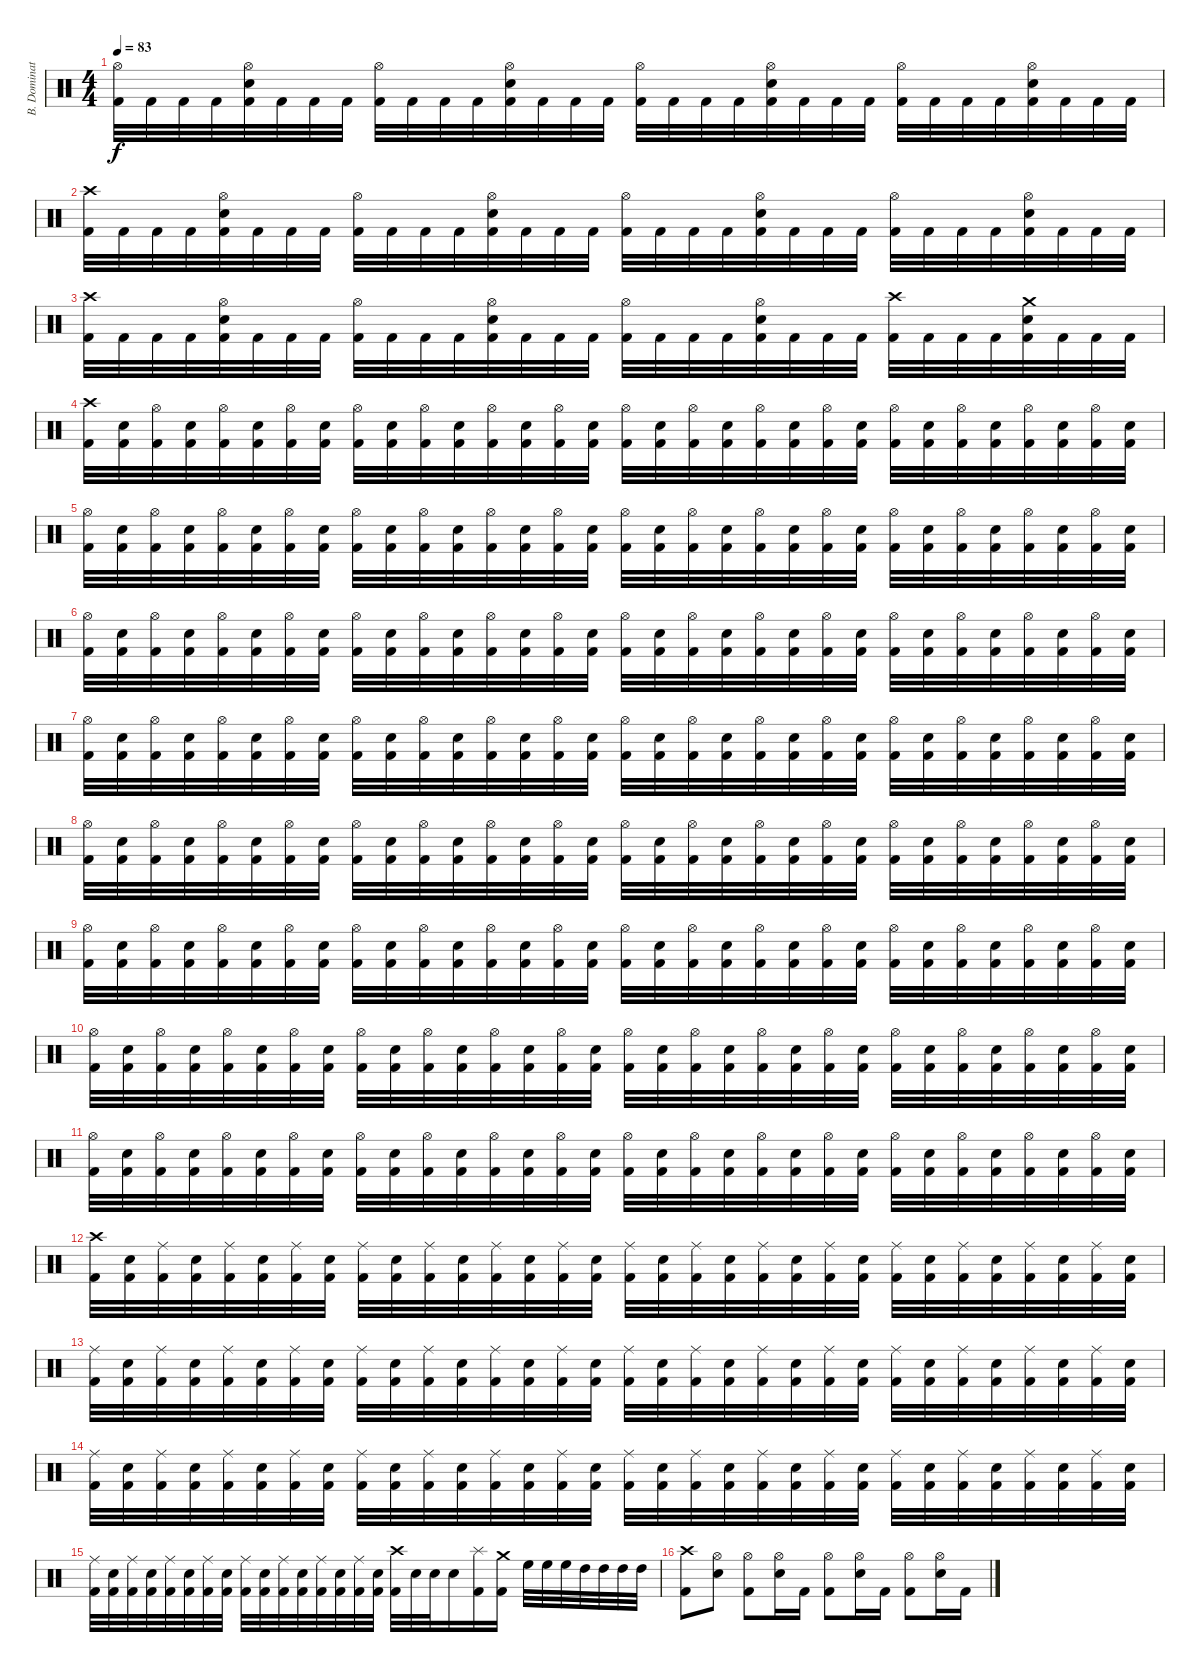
\track ("B. Dominator" "B. Dominat") {instrument percussion}
\staff {score}
\articulation defaults
\ts (4 4)
\tempo 83
\clef neutral
\ks c
("Hi-Hat (open)" "Kick (hit) 2").32{dy f} "Kick (hit) 2".32 "Kick (hit) 2".32 "Kick (hit) 2".32 ("Hi-Hat (open)" "Electric Snare (hit)" "Kick (hit) 2").32 "Kick (hit) 2".32 "Kick (hit) 2".32 "Kick (hit) 2".32 ("Hi-Hat (open)" "Kick (hit) 2").32 "Kick (hit) 2".32 "Kick (hit) 2".32 "Kick (hit) 2".32 ("Hi-Hat (open)" "Electric Snare (hit)" "Kick (hit) 2").32 "Kick (hit) 2".32 "Kick (hit) 2".32 "Kick (hit) 2".32 ("Hi-Hat (open)" "Kick (hit) 2").32 "Kick (hit) 2".32 "Kick (hit) 2".32 "Kick (hit) 2".32 ("Hi-Hat (open)" "Electric Snare (hit)" "Kick (hit) 2").32 "Kick (hit) 2".32 "Kick (hit) 2".32 "Kick (hit) 2".32 ("Hi-Hat (open)" "Kick (hit) 2").32 "Kick (hit) 2".32 "Kick (hit) 2".32 "Kick (hit) 2".32 ("Hi-Hat (open)" "Electric Snare (hit)" "Kick (hit) 2").32 "Kick (hit) 2".32 "Kick (hit) 2".32 "Kick (hit) 2".32 |
("Crash high (hit)" "Kick (hit) 2").32 "Kick (hit) 2".32 "Kick (hit) 2".32 "Kick (hit) 2".32 ("Hi-Hat (open)" "Electric Snare (hit)" "Kick (hit) 2").32 "Kick (hit) 2".32 "Kick (hit) 2".32 "Kick (hit) 2".32 ("Hi-Hat (open)" "Kick (hit) 2").32 "Kick (hit) 2".32 "Kick (hit) 2".32 "Kick (hit) 2".32 ("Hi-Hat (open)" "Electric Snare (hit)" "Kick (hit) 2").32 "Kick (hit) 2".32 "Kick (hit) 2".32 "Kick (hit) 2".32 ("Hi-Hat (open)" "Kick (hit) 2").32 "Kick (hit) 2".32 "Kick (hit) 2".32 "Kick (hit) 2".32 ("Hi-Hat (open)" "Electric Snare (hit)" "Kick (hit) 2").32 "Kick (hit) 2".32 "Kick (hit) 2".32 "Kick (hit) 2".32 ("Hi-Hat (open)" "Kick (hit) 2").32 "Kick (hit) 2".32 "Kick (hit) 2".32 "Kick (hit) 2".32 ("Hi-Hat (open)" "Electric Snare (hit)" "Kick (hit) 2").32 "Kick (hit) 2".32 "Kick (hit) 2".32 "Kick (hit) 2".32 |
("Crash high (hit)" "Kick (hit) 2").32 "Kick (hit) 2".32 "Kick (hit) 2".32 "Kick (hit) 2".32 ("Hi-Hat (open)" "Electric Snare (hit)" "Kick (hit) 2").32 "Kick (hit) 2".32 "Kick (hit) 2".32 "Kick (hit) 2".32 ("Hi-Hat (open)" "Kick (hit) 2").32 "Kick (hit) 2".32 "Kick (hit) 2".32 "Kick (hit) 2".32 ("Hi-Hat (open)" "Electric Snare (hit)" "Kick (hit) 2").32 "Kick (hit) 2".32 "Kick (hit) 2".32 "Kick (hit) 2".32 ("Hi-Hat (open)" "Kick (hit) 2").32 "Kick (hit) 2".32 "Kick (hit) 2".32 "Kick (hit) 2".32 ("Hi-Hat (open)" "Electric Snare (hit)" "Kick (hit) 2").32 "Kick (hit) 2".32 "Kick (hit) 2".32 "Kick (hit) 2".32 ("Crash high (hit)" "Kick (hit) 2").32 "Kick (hit) 2".32 "Kick (hit) 2".32 "Kick (hit) 2".32 ("Crash medium (hit)" "Electric Snare (hit)" "Kick (hit) 2").32 "Kick (hit) 2".32 "Kick (hit) 2".32 "Kick (hit) 2".32 |
("Crash high (hit)" "Kick (hit) 2").32 ("Electric Snare (hit)" "Kick (hit) 2").32 ("Hi-Hat (open)" "Kick (hit) 2").32 ("Electric Snare (hit)" "Kick (hit) 2").32 ("Hi-Hat (open)" "Kick (hit) 2").32 ("Electric Snare (hit)" "Kick (hit) 2").32 ("Hi-Hat (open)" "Kick (hit) 2").32 ("Electric Snare (hit)" "Kick (hit) 2").32 ("Hi-Hat (open)" "Kick (hit) 2").32 ("Electric Snare (hit)" "Kick (hit) 2").32 ("Hi-Hat (open)" "Kick (hit) 2").32 ("Electric Snare (hit)" "Kick (hit) 2").32 ("Hi-Hat (open)" "Kick (hit) 2").32 ("Electric Snare (hit)" "Kick (hit) 2").32 ("Hi-Hat (open)" "Kick (hit) 2").32 ("Electric Snare (hit)" "Kick (hit) 2").32 ("Hi-Hat (open)" "Kick (hit) 2").32 ("Electric Snare (hit)" "Kick (hit) 2").32 ("Hi-Hat (open)" "Kick (hit) 2").32 ("Electric Snare (hit)" "Kick (hit) 2").32 ("Hi-Hat (open)" "Kick (hit) 2").32 ("Electric Snare (hit)" "Kick (hit) 2").32 ("Hi-Hat (open)" "Kick (hit) 2").32 ("Electric Snare (hit)" "Kick (hit) 2").32 ("Hi-Hat (open)" "Kick (hit) 2").32 ("Electric Snare (hit)" "Kick (hit) 2").32 ("Hi-Hat (open)" "Kick (hit) 2").32 ("Electric Snare (hit)" "Kick (hit) 2").32 ("Hi-Hat (open)" "Kick (hit) 2").32 ("Electric Snare (hit)" "Kick (hit) 2").32 ("Hi-Hat (open)" "Kick (hit) 2").32 ("Electric Snare (hit)" "Kick (hit) 2").32 |
("Hi-Hat (open)" "Kick (hit) 2").32 ("Electric Snare (hit)" "Kick (hit) 2").32 ("Hi-Hat (open)" "Kick (hit) 2").32 ("Electric Snare (hit)" "Kick (hit) 2").32 ("Hi-Hat (open)" "Kick (hit) 2").32 ("Electric Snare (hit)" "Kick (hit) 2").32 ("Hi-Hat (open)" "Kick (hit) 2").32 ("Electric Snare (hit)" "Kick (hit) 2").32 ("Hi-Hat (open)" "Kick (hit) 2").32 ("Electric Snare (hit)" "Kick (hit) 2").32 ("Hi-Hat (open)" "Kick (hit) 2").32 ("Electric Snare (hit)" "Kick (hit) 2").32 ("Hi-Hat (open)" "Kick (hit) 2").32 ("Electric Snare (hit)" "Kick (hit) 2").32 ("Hi-Hat (open)" "Kick (hit) 2").32 ("Electric Snare (hit)" "Kick (hit) 2").32 ("Hi-Hat (open)" "Kick (hit) 2").32 ("Electric Snare (hit)" "Kick (hit) 2").32 ("Hi-Hat (open)" "Kick (hit) 2").32 ("Electric Snare (hit)" "Kick (hit) 2").32 ("Hi-Hat (open)" "Kick (hit) 2").32 ("Electric Snare (hit)" "Kick (hit) 2").32 ("Hi-Hat (open)" "Kick (hit) 2").32 ("Electric Snare (hit)" "Kick (hit) 2").32 ("Hi-Hat (open)" "Kick (hit) 2").32 ("Electric Snare (hit)" "Kick (hit) 2").32 ("Hi-Hat (open)" "Kick (hit) 2").32 ("Electric Snare (hit)" "Kick (hit) 2").32 ("Hi-Hat (open)" "Kick (hit) 2").32 ("Electric Snare (hit)" "Kick (hit) 2").32 ("Hi-Hat (open)" "Kick (hit) 2").32 ("Electric Snare (hit)" "Kick (hit) 2").32 |
("Hi-Hat (open)" "Kick (hit) 2").32 ("Electric Snare (hit)" "Kick (hit) 2").32 ("Hi-Hat (open)" "Kick (hit) 2").32 ("Electric Snare (hit)" "Kick (hit) 2").32 ("Hi-Hat (open)" "Kick (hit) 2").32 ("Electric Snare (hit)" "Kick (hit) 2").32 ("Hi-Hat (open)" "Kick (hit) 2").32 ("Electric Snare (hit)" "Kick (hit) 2").32 ("Hi-Hat (open)" "Kick (hit) 2").32 ("Electric Snare (hit)" "Kick (hit) 2").32 ("Hi-Hat (open)" "Kick (hit) 2").32 ("Electric Snare (hit)" "Kick (hit) 2").32 ("Hi-Hat (open)" "Kick (hit) 2").32 ("Electric Snare (hit)" "Kick (hit) 2").32 ("Hi-Hat (open)" "Kick (hit) 2").32 ("Electric Snare (hit)" "Kick (hit) 2").32 ("Hi-Hat (open)" "Kick (hit) 2").32 ("Electric Snare (hit)" "Kick (hit) 2").32 ("Hi-Hat (open)" "Kick (hit) 2").32 ("Electric Snare (hit)" "Kick (hit) 2").32 ("Hi-Hat (open)" "Kick (hit) 2").32 ("Electric Snare (hit)" "Kick (hit) 2").32 ("Hi-Hat (open)" "Kick (hit) 2").32 ("Electric Snare (hit)" "Kick (hit) 2").32 ("Hi-Hat (open)" "Kick (hit) 2").32 ("Electric Snare (hit)" "Kick (hit) 2").32 ("Hi-Hat (open)" "Kick (hit) 2").32 ("Electric Snare (hit)" "Kick (hit) 2").32 ("Hi-Hat (open)" "Kick (hit) 2").32 ("Electric Snare (hit)" "Kick (hit) 2").32 ("Hi-Hat (open)" "Kick (hit) 2").32 ("Electric Snare (hit)" "Kick (hit) 2").32 |
("Hi-Hat (open)" "Kick (hit) 2").32 ("Electric Snare (hit)" "Kick (hit) 2").32 ("Hi-Hat (open)" "Kick (hit) 2").32 ("Electric Snare (hit)" "Kick (hit) 2").32 ("Hi-Hat (open)" "Kick (hit) 2").32 ("Electric Snare (hit)" "Kick (hit) 2").32 ("Hi-Hat (open)" "Kick (hit) 2").32 ("Electric Snare (hit)" "Kick (hit) 2").32 ("Hi-Hat (open)" "Kick (hit) 2").32 ("Electric Snare (hit)" "Kick (hit) 2").32 ("Hi-Hat (open)" "Kick (hit) 2").32 ("Electric Snare (hit)" "Kick (hit) 2").32 ("Hi-Hat (open)" "Kick (hit) 2").32 ("Electric Snare (hit)" "Kick (hit) 2").32 ("Hi-Hat (open)" "Kick (hit) 2").32 ("Electric Snare (hit)" "Kick (hit) 2").32 ("Hi-Hat (open)" "Kick (hit) 2").32 ("Electric Snare (hit)" "Kick (hit) 2").32 ("Hi-Hat (open)" "Kick (hit) 2").32 ("Electric Snare (hit)" "Kick (hit) 2").32 ("Hi-Hat (open)" "Kick (hit) 2").32 ("Electric Snare (hit)" "Kick (hit) 2").32 ("Hi-Hat (open)" "Kick (hit) 2").32 ("Electric Snare (hit)" "Kick (hit) 2").32 ("Hi-Hat (open)" "Kick (hit) 2").32 ("Electric Snare (hit)" "Kick (hit) 2").32 ("Hi-Hat (open)" "Kick (hit) 2").32 ("Electric Snare (hit)" "Kick (hit) 2").32 ("Hi-Hat (open)" "Kick (hit) 2").32 ("Electric Snare (hit)" "Kick (hit) 2").32 ("Hi-Hat (open)" "Kick (hit) 2").32 ("Electric Snare (hit)" "Kick (hit) 2").32 |
("Hi-Hat (open)" "Kick (hit) 2").32 ("Electric Snare (hit)" "Kick (hit) 2").32 ("Hi-Hat (open)" "Kick (hit) 2").32 ("Electric Snare (hit)" "Kick (hit) 2").32 ("Hi-Hat (open)" "Kick (hit) 2").32 ("Electric Snare (hit)" "Kick (hit) 2").32 ("Hi-Hat (open)" "Kick (hit) 2").32 ("Electric Snare (hit)" "Kick (hit) 2").32 ("Hi-Hat (open)" "Kick (hit) 2").32 ("Electric Snare (hit)" "Kick (hit) 2").32 ("Hi-Hat (open)" "Kick (hit) 2").32 ("Electric Snare (hit)" "Kick (hit) 2").32 ("Hi-Hat (open)" "Kick (hit) 2").32 ("Electric Snare (hit)" "Kick (hit) 2").32 ("Hi-Hat (open)" "Kick (hit) 2").32 ("Electric Snare (hit)" "Kick (hit) 2").32 ("Hi-Hat (open)" "Kick (hit) 2").32 ("Electric Snare (hit)" "Kick (hit) 2").32 ("Hi-Hat (open)" "Kick (hit) 2").32 ("Electric Snare (hit)" "Kick (hit) 2").32 ("Hi-Hat (open)" "Kick (hit) 2").32 ("Electric Snare (hit)" "Kick (hit) 2").32 ("Hi-Hat (open)" "Kick (hit) 2").32 ("Electric Snare (hit)" "Kick (hit) 2").32 ("Hi-Hat (open)" "Kick (hit) 2").32 ("Electric Snare (hit)" "Kick (hit) 2").32 ("Hi-Hat (open)" "Kick (hit) 2").32 ("Electric Snare (hit)" "Kick (hit) 2").32 ("Hi-Hat (open)" "Kick (hit) 2").32 ("Electric Snare (hit)" "Kick (hit) 2").32 ("Hi-Hat (open)" "Kick (hit) 2").32 ("Electric Snare (hit)" "Kick (hit) 2").32 |
("Hi-Hat (open)" "Kick (hit) 2").32 ("Electric Snare (hit)" "Kick (hit) 2").32 ("Hi-Hat (open)" "Kick (hit) 2").32 ("Electric Snare (hit)" "Kick (hit) 2").32 ("Hi-Hat (open)" "Kick (hit) 2").32 ("Electric Snare (hit)" "Kick (hit) 2").32 ("Hi-Hat (open)" "Kick (hit) 2").32 ("Electric Snare (hit)" "Kick (hit) 2").32 ("Hi-Hat (open)" "Kick (hit) 2").32 ("Electric Snare (hit)" "Kick (hit) 2").32 ("Hi-Hat (open)" "Kick (hit) 2").32 ("Electric Snare (hit)" "Kick (hit) 2").32 ("Hi-Hat (open)" "Kick (hit) 2").32 ("Electric Snare (hit)" "Kick (hit) 2").32 ("Hi-Hat (open)" "Kick (hit) 2").32 ("Electric Snare (hit)" "Kick (hit) 2").32 ("Hi-Hat (open)" "Kick (hit) 2").32 ("Electric Snare (hit)" "Kick (hit) 2").32 ("Hi-Hat (open)" "Kick (hit) 2").32 ("Electric Snare (hit)" "Kick (hit) 2").32 ("Hi-Hat (open)" "Kick (hit) 2").32 ("Electric Snare (hit)" "Kick (hit) 2").32 ("Hi-Hat (open)" "Kick (hit) 2").32 ("Electric Snare (hit)" "Kick (hit) 2").32 ("Hi-Hat (open)" "Kick (hit) 2").32 ("Electric Snare (hit)" "Kick (hit) 2").32 ("Hi-Hat (open)" "Kick (hit) 2").32 ("Electric Snare (hit)" "Kick (hit) 2").32 ("Hi-Hat (open)" "Kick (hit) 2").32 ("Electric Snare (hit)" "Kick (hit) 2").32 ("Hi-Hat (open)" "Kick (hit) 2").32 ("Electric Snare (hit)" "Kick (hit) 2").32 |
("Hi-Hat (open)" "Kick (hit) 2").32 ("Electric Snare (hit)" "Kick (hit) 2").32 ("Hi-Hat (open)" "Kick (hit) 2").32 ("Electric Snare (hit)" "Kick (hit) 2").32 ("Hi-Hat (open)" "Kick (hit) 2").32 ("Electric Snare (hit)" "Kick (hit) 2").32 ("Hi-Hat (open)" "Kick (hit) 2").32 ("Electric Snare (hit)" "Kick (hit) 2").32 ("Hi-Hat (open)" "Kick (hit) 2").32 ("Electric Snare (hit)" "Kick (hit) 2").32 ("Hi-Hat (open)" "Kick (hit) 2").32 ("Electric Snare (hit)" "Kick (hit) 2").32 ("Hi-Hat (open)" "Kick (hit) 2").32 ("Electric Snare (hit)" "Kick (hit) 2").32 ("Hi-Hat (open)" "Kick (hit) 2").32 ("Electric Snare (hit)" "Kick (hit) 2").32 ("Hi-Hat (open)" "Kick (hit) 2").32 ("Electric Snare (hit)" "Kick (hit) 2").32 ("Hi-Hat (open)" "Kick (hit) 2").32 ("Electric Snare (hit)" "Kick (hit) 2").32 ("Hi-Hat (open)" "Kick (hit) 2").32 ("Electric Snare (hit)" "Kick (hit) 2").32 ("Hi-Hat (open)" "Kick (hit) 2").32 ("Electric Snare (hit)" "Kick (hit) 2").32 ("Hi-Hat (open)" "Kick (hit) 2").32 ("Electric Snare (hit)" "Kick (hit) 2").32 ("Hi-Hat (open)" "Kick (hit) 2").32 ("Electric Snare (hit)" "Kick (hit) 2").32 ("Hi-Hat (open)" "Kick (hit) 2").32 ("Electric Snare (hit)" "Kick (hit) 2").32 ("Hi-Hat (open)" "Kick (hit) 2").32 ("Electric Snare (hit)" "Kick (hit) 2").32 |
("Hi-Hat (open)" "Kick (hit) 2").32 ("Electric Snare (hit)" "Kick (hit) 2").32 ("Hi-Hat (open)" "Kick (hit) 2").32 ("Electric Snare (hit)" "Kick (hit) 2").32 ("Hi-Hat (open)" "Kick (hit) 2").32 ("Electric Snare (hit)" "Kick (hit) 2").32 ("Hi-Hat (open)" "Kick (hit) 2").32 ("Electric Snare (hit)" "Kick (hit) 2").32 ("Hi-Hat (open)" "Kick (hit) 2").32 ("Electric Snare (hit)" "Kick (hit) 2").32 ("Hi-Hat (open)" "Kick (hit) 2").32 ("Electric Snare (hit)" "Kick (hit) 2").32 ("Hi-Hat (open)" "Kick (hit) 2").32 ("Electric Snare (hit)" "Kick (hit) 2").32 ("Hi-Hat (open)" "Kick (hit) 2").32 ("Electric Snare (hit)" "Kick (hit) 2").32 ("Hi-Hat (open)" "Kick (hit) 2").32 ("Electric Snare (hit)" "Kick (hit) 2").32 ("Hi-Hat (open)" "Kick (hit) 2").32 ("Electric Snare (hit)" "Kick (hit) 2").32 ("Hi-Hat (open)" "Kick (hit) 2").32 ("Electric Snare (hit)" "Kick (hit) 2").32 ("Hi-Hat (open)" "Kick (hit) 2").32 ("Electric Snare (hit)" "Kick (hit) 2").32 ("Hi-Hat (open)" "Kick (hit) 2").32 ("Electric Snare (hit)" "Kick (hit) 2").32 ("Hi-Hat (open)" "Kick (hit) 2").32 ("Electric Snare (hit)" "Kick (hit) 2").32 ("Hi-Hat (open)" "Kick (hit) 2").32 ("Electric Snare (hit)" "Kick (hit) 2").32 ("Hi-Hat (open)" "Kick (hit) 2").32 ("Electric Snare (hit)" "Kick (hit) 2").32 |
("Crash high (hit)" "Kick (hit) 2").32 ("Electric Snare (hit)" "Kick (hit) 2").32 ("Ride (middle)" "Kick (hit) 2").32 ("Electric Snare (hit)" "Kick (hit) 2").32 ("Ride (middle)" "Kick (hit) 2").32 ("Electric Snare (hit)" "Kick (hit) 2").32 ("Ride (middle)" "Kick (hit) 2").32 ("Electric Snare (hit)" "Kick (hit) 2").32 ("Ride (middle)" "Kick (hit) 2").32 ("Electric Snare (hit)" "Kick (hit) 2").32 ("Ride (middle)" "Kick (hit) 2").32 ("Electric Snare (hit)" "Kick (hit) 2").32 ("Ride (middle)" "Kick (hit) 2").32 ("Electric Snare (hit)" "Kick (hit) 2").32 ("Ride (middle)" "Kick (hit) 2").32 ("Electric Snare (hit)" "Kick (hit) 2").32 ("Ride (middle)" "Kick (hit) 2").32 ("Electric Snare (hit)" "Kick (hit) 2").32 ("Ride (middle)" "Kick (hit) 2").32 ("Electric Snare (hit)" "Kick (hit) 2").32 ("Ride (middle)" "Kick (hit) 2").32 ("Electric Snare (hit)" "Kick (hit) 2").32 ("Ride (middle)" "Kick (hit) 2").32 ("Electric Snare (hit)" "Kick (hit) 2").32 ("Ride (middle)" "Kick (hit) 2").32 ("Electric Snare (hit)" "Kick (hit) 2").32 ("Ride (middle)" "Kick (hit) 2").32 ("Electric Snare (hit)" "Kick (hit) 2").32 ("Ride (middle)" "Kick (hit) 2").32 ("Electric Snare (hit)" "Kick (hit) 2").32 ("Ride (middle)" "Kick (hit) 2").32 ("Electric Snare (hit)" "Kick (hit) 2").32 |
("Ride (middle)" "Kick (hit) 2").32 ("Electric Snare (hit)" "Kick (hit) 2").32 ("Ride (middle)" "Kick (hit) 2").32 ("Electric Snare (hit)" "Kick (hit) 2").32 ("Ride (middle)" "Kick (hit) 2").32 ("Electric Snare (hit)" "Kick (hit) 2").32 ("Ride (middle)" "Kick (hit) 2").32 ("Electric Snare (hit)" "Kick (hit) 2").32 ("Ride (middle)" "Kick (hit) 2").32 ("Electric Snare (hit)" "Kick (hit) 2").32 ("Ride (middle)" "Kick (hit) 2").32 ("Electric Snare (hit)" "Kick (hit) 2").32 ("Ride (middle)" "Kick (hit) 2").32 ("Electric Snare (hit)" "Kick (hit) 2").32 ("Ride (middle)" "Kick (hit) 2").32 ("Electric Snare (hit)" "Kick (hit) 2").32 ("Ride (middle)" "Kick (hit) 2").32 ("Electric Snare (hit)" "Kick (hit) 2").32 ("Ride (middle)" "Kick (hit) 2").32 ("Electric Snare (hit)" "Kick (hit) 2").32 ("Ride (middle)" "Kick (hit) 2").32 ("Electric Snare (hit)" "Kick (hit) 2").32 ("Ride (middle)" "Kick (hit) 2").32 ("Electric Snare (hit)" "Kick (hit) 2").32 ("Ride (middle)" "Kick (hit) 2").32 ("Electric Snare (hit)" "Kick (hit) 2").32 ("Ride (middle)" "Kick (hit) 2").32 ("Electric Snare (hit)" "Kick (hit) 2").32 ("Ride (middle)" "Kick (hit) 2").32 ("Electric Snare (hit)" "Kick (hit) 2").32 ("Ride (middle)" "Kick (hit) 2").32 ("Electric Snare (hit)" "Kick (hit) 2").32 |
("Ride (middle)" "Kick (hit) 2").32 ("Electric Snare (hit)" "Kick (hit) 2").32 ("Ride (middle)" "Kick (hit) 2").32 ("Electric Snare (hit)" "Kick (hit) 2").32 ("Ride (middle)" "Kick (hit) 2").32 ("Electric Snare (hit)" "Kick (hit) 2").32 ("Ride (middle)" "Kick (hit) 2").32 ("Electric Snare (hit)" "Kick (hit) 2").32 ("Ride (middle)" "Kick (hit) 2").32 ("Electric Snare (hit)" "Kick (hit) 2").32 ("Ride (middle)" "Kick (hit) 2").32 ("Electric Snare (hit)" "Kick (hit) 2").32 ("Ride (middle)" "Kick (hit) 2").32 ("Electric Snare (hit)" "Kick (hit) 2").32 ("Ride (middle)" "Kick (hit) 2").32 ("Electric Snare (hit)" "Kick (hit) 2").32 ("Ride (middle)" "Kick (hit) 2").32 ("Electric Snare (hit)" "Kick (hit) 2").32 ("Ride (middle)" "Kick (hit) 2").32 ("Electric Snare (hit)" "Kick (hit) 2").32 ("Ride (middle)" "Kick (hit) 2").32 ("Electric Snare (hit)" "Kick (hit) 2").32 ("Ride (middle)" "Kick (hit) 2").32 ("Electric Snare (hit)" "Kick (hit) 2").32 ("Ride (middle)" "Kick (hit) 2").32 ("Electric Snare (hit)" "Kick (hit) 2").32 ("Ride (middle)" "Kick (hit) 2").32 ("Electric Snare (hit)" "Kick (hit) 2").32 ("Ride (middle)" "Kick (hit) 2").32 ("Electric Snare (hit)" "Kick (hit) 2").32 ("Ride (middle)" "Kick (hit) 2").32 ("Electric Snare (hit)" "Kick (hit) 2").32 |
("Ride (middle)" "Kick (hit) 2").32 ("Electric Snare (hit)" "Kick (hit) 2").32 ("Ride (middle)" "Kick (hit) 2").32 ("Electric Snare (hit)" "Kick (hit) 2").32 ("Ride (middle)" "Kick (hit) 2").32 ("Electric Snare (hit)" "Kick (hit) 2").32 ("Ride (middle)" "Kick (hit) 2").32 ("Electric Snare (hit)" "Kick (hit) 2").32 ("Ride (middle)" "Kick (hit) 2").32 ("Electric Snare (hit)" "Kick (hit) 2").32 ("Ride (middle)" "Kick (hit) 2").32 ("Electric Snare (hit)" "Kick (hit) 2").32 ("Ride (middle)" "Kick (hit) 2").32 ("Electric Snare (hit)" "Kick (hit) 2").32 ("Ride (middle)" "Kick (hit) 2").32 ("Electric Snare (hit)" "Kick (hit) 2").32 ("Crash high (hit)" "Kick (hit) 2").32 "Electric Snare (hit)".32 "Electric Snare (hit)".32 "Electric Snare (hit)".16 ("Splash (hit)" "Kick (hit) 2").16 ("Crash medium (hit)" "Kick (hit) 2").16 "High Floor Tom (hit)".32 "High Floor Tom (hit)".32 "High Floor Tom (hit)".32 "High Tom (hit)".32 "High Tom (hit)".32 "High Tom (hit)".32 "High Tom (hit)".32 |
("Crash high (hit)" "Kick (hit) 2").8 ("Hi-Hat (open)" "Electric Snare (hit)").8 ("Hi-Hat (open)" "Kick (hit) 2").8 ("Hi-Hat (open)" "Electric Snare (hit)").16 "Kick (hit) 2".16 ("Hi-Hat (open)" "Kick (hit) 2").8 ("Hi-Hat (open)" "Electric Snare (hit)").16 "Kick (hit) 2".16 ("Hi-Hat (open)" "Kick (hit) 2").8 ("Hi-Hat (open)" "Electric Snare (hit)").16 "Kick (hit) 2".16
